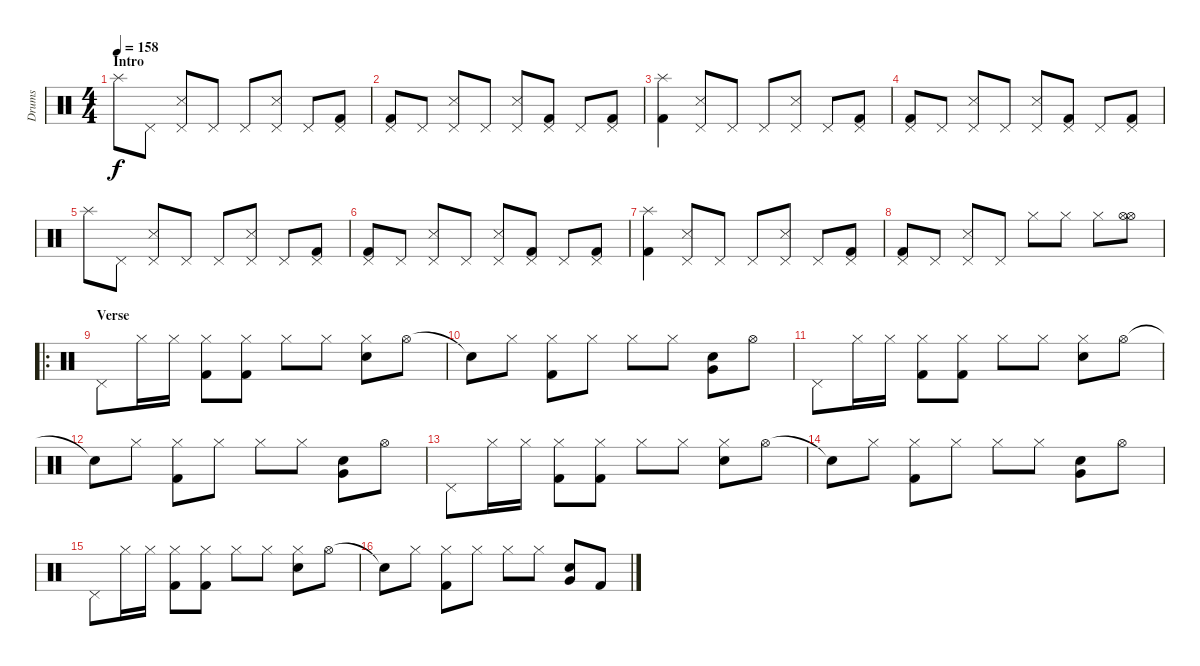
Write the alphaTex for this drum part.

\track ("Drums" "Drums") {instrument percussion}
\staff {score}
\articulation defaults
\ts (4 4)
\section ("" "Intro")
\tempo 158
\clef neutral
\ks c "Splash (hit)".8{dy f} "Pedal Hi-Hat (hit)".8
("Pedal Hi-Hat (hit)" "Snare (side stick) 3").8 "Pedal Hi-Hat (hit)".8 "Pedal Hi-Hat (hit)".8 ("Pedal Hi-Hat (hit)" "Snare (side stick) 3").8 "Pedal Hi-Hat (hit)".8 ("Pedal Hi-Hat (hit)" "Kick (hit) 2").8 |
("Pedal Hi-Hat (hit)" "Kick (hit) 2").8 "Pedal Hi-Hat (hit)".8 ("Pedal Hi-Hat (hit)" "Snare (side stick) 3").8 "Pedal Hi-Hat (hit)".8 ("Pedal Hi-Hat (hit)" "Snare (side stick) 3").8 ("Pedal Hi-Hat (hit)" "Kick (hit) 2").8 "Pedal Hi-Hat (hit)".8 ("Pedal Hi-Hat (hit)" "Kick (hit) 2").8 |
("Splash (hit)" "Kick (hit) 2").4 ("Pedal Hi-Hat (hit)" "Snare (side stick) 3").8 "Pedal Hi-Hat (hit)".8 "Pedal Hi-Hat (hit)".8 ("Pedal Hi-Hat (hit)" "Snare (side stick) 3").8 "Pedal Hi-Hat (hit)".8 ("Pedal Hi-Hat (hit)" "Kick (hit) 2").8 |
("Pedal Hi-Hat (hit)" "Kick (hit) 2").8 "Pedal Hi-Hat (hit)".8 ("Pedal Hi-Hat (hit)" "Snare (side stick) 3").8 "Pedal Hi-Hat (hit)".8 ("Pedal Hi-Hat (hit)" "Snare (side stick) 3").8 ("Pedal Hi-Hat (hit)" "Kick (hit) 2").8 "Pedal Hi-Hat (hit)".8 ("Pedal Hi-Hat (hit)" "Kick (hit) 2").8 |
"Splash (hit)".8 "Pedal Hi-Hat (hit)".8 ("Pedal Hi-Hat (hit)" "Snare (side stick) 3").8 "Pedal Hi-Hat (hit)".8 "Pedal Hi-Hat (hit)".8 ("Pedal Hi-Hat (hit)" "Snare (side stick) 3").8 "Pedal Hi-Hat (hit)".8 ("Pedal Hi-Hat (hit)" "Kick (hit) 2").8 |
("Pedal Hi-Hat (hit)" "Kick (hit) 2").8 "Pedal Hi-Hat (hit)".8 ("Pedal Hi-Hat (hit)" "Snare (side stick) 3").8 "Pedal Hi-Hat (hit)".8 ("Pedal Hi-Hat (hit)" "Snare (side stick) 3").8 ("Pedal Hi-Hat (hit)" "Kick (hit) 2").8 "Pedal Hi-Hat (hit)".8 ("Pedal Hi-Hat (hit)" "Kick (hit) 2").8 |
("Splash (hit)" "Kick (hit) 2").4 ("Pedal Hi-Hat (hit)" "Snare (side stick) 3").8 "Pedal Hi-Hat (hit)".8 "Pedal Hi-Hat (hit)".8 ("Pedal Hi-Hat (hit)" "Snare (side stick) 3").8 "Pedal Hi-Hat (hit)".8 ("Pedal Hi-Hat (hit)" "Kick (hit) 2").8 |
("Pedal Hi-Hat (hit)" "Kick (hit) 2").8 "Pedal Hi-Hat (hit)".8 ("Pedal Hi-Hat (hit)" "Snare (side stick) 3").8 "Pedal Hi-Hat (hit)".8 "Hi-Hat (closed)".8 "Hi-Hat (closed)".8 "Hi-Hat (closed)".8 ("Hi-Hat (open)" "Hi-Hat (open)").8 |
\ro
\section ("" "Verse")
"Pedal Hi-Hat (hit)".8 "Hi-Hat (closed)".16 "Hi-Hat (closed)".16 ("Hi-Hat (closed)" "Kick (hit) 2").8 ("Hi-Hat (closed)" "Kick (hit) 2").8 "Hi-Hat (closed)".8 "Hi-Hat (closed)".8 ("Hi-Hat (closed)" "Electric Snare (hit)").8 "Hi-Hat (open)".8 |
"Snare (hit)"{t}.8 "Hi-Hat (closed)".8 ("Hi-Hat (closed)" "Kick (hit) 2").8 "Hi-Hat (closed)".8 "Hi-Hat (closed)".8 "Hi-Hat (closed)".8 ("Very Low Tom (hit)" "Electric Snare (hit)").8 "Hi-Hat (open)".8 |
"Pedal Hi-Hat (hit)".8 "Hi-Hat (closed)".16 "Hi-Hat (closed)".16 ("Hi-Hat (closed)" "Kick (hit) 2").8 ("Hi-Hat (closed)" "Kick (hit) 2").8 "Hi-Hat (closed)".8 "Hi-Hat (closed)".8 ("Hi-Hat (closed)" "Electric Snare (hit)").8 "Hi-Hat (open)".8 |
"Snare (hit)"{t}.8 "Hi-Hat (closed)".8 ("Hi-Hat (closed)" "Kick (hit) 2").8 "Hi-Hat (closed)".8 "Hi-Hat (closed)".8 "Hi-Hat (closed)".8 ("Very Low Tom (hit)" "Electric Snare (hit)").8 "Hi-Hat (open)".8 |
"Pedal Hi-Hat (hit)".8 "Hi-Hat (closed)".16 "Hi-Hat (closed)".16 ("Hi-Hat (closed)" "Kick (hit) 2").8 ("Hi-Hat (closed)" "Kick (hit) 2").8 "Hi-Hat (closed)".8 "Hi-Hat (closed)".8 ("Hi-Hat (closed)" "Electric Snare (hit)").8 "Hi-Hat (open)".8 |
"Snare (hit)"{t}.8 "Hi-Hat (closed)".8 ("Hi-Hat (closed)" "Kick (hit) 2").8 "Hi-Hat (closed)".8 "Hi-Hat (closed)".8 "Hi-Hat (closed)".8 ("Very Low Tom (hit)" "Electric Snare (hit)").8 "Hi-Hat (open)".8 |
"Pedal Hi-Hat (hit)".8 "Hi-Hat (closed)".16 "Hi-Hat (closed)".16 ("Hi-Hat (closed)" "Kick (hit) 2").8 ("Hi-Hat (closed)" "Kick (hit) 2").8 "Hi-Hat (closed)".8 "Hi-Hat (closed)".8 ("Hi-Hat (closed)" "Electric Snare (hit)").8 "Hi-Hat (open)".8 |
"Snare (hit)"{t}.8 "Hi-Hat (closed)".8 ("Hi-Hat (closed)" "Kick (hit) 2").8 "Hi-Hat (closed)".8 "Hi-Hat (closed)".8 "Hi-Hat (closed)".8 ("Very Low Tom (hit)" "Electric Snare (hit)").8 "Kick (hit) 2".8
